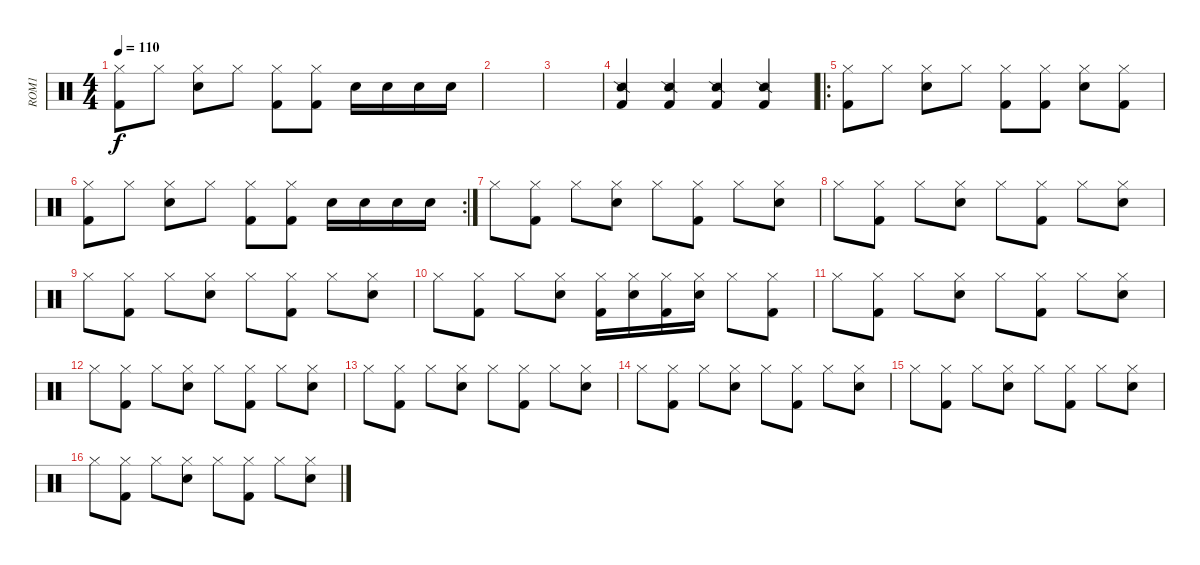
\track ("ROM1" "ROM1") {instrument percussion}
\staff {score}
\articulation defaults
\ts (4 4)
\tempo 110
\clef neutral
\ks c
("Kick (hit) 2" "Hi-Hat (closed)").8{dy f} "Hi-Hat (closed)".8 ("Electric Snare (hit)" "Hi-Hat (closed)").8 "Hi-Hat (closed)".8 ("Kick (hit) 2" "Hi-Hat (closed)").8 ("Kick (hit) 2" "Hi-Hat (closed)").8 "Electric Snare (hit)".16 "Electric Snare (hit)".16 "Electric Snare (hit)".16 "Electric Snare (hit)".16 |
|
|
("Snare (side stick) 2" "Kick (hit) 2").4 ("Snare (side stick) 2" "Kick (hit) 2").4 ("Snare (side stick) 2" "Kick (hit) 2").4 ("Snare (side stick) 2" "Kick (hit) 2").4 |
\ro
("Kick (hit) 2" "Hi-Hat (closed)").8 "Hi-Hat (closed)".8 ("Electric Snare (hit)" "Hi-Hat (closed)").8 "Hi-Hat (closed)".8 ("Kick (hit) 2" "Hi-Hat (closed)").8 ("Kick (hit) 2" "Hi-Hat (closed)").8 ("Electric Snare (hit)" "Hi-Hat (closed)").8 ("Kick (hit) 2" "Hi-Hat (closed)").8 |
\rc 2
("Kick (hit) 2" "Hi-Hat (closed)").8 "Hi-Hat (closed)".8 ("Electric Snare (hit)" "Hi-Hat (closed)").8 "Hi-Hat (closed)".8 ("Kick (hit) 2" "Hi-Hat (closed)").8 ("Kick (hit) 2" "Hi-Hat (closed)").8 "Electric Snare (hit)".16 "Electric Snare (hit)".16 "Electric Snare (hit)".16 "Electric Snare (hit)".16 |
"Hi-Hat (closed)".8 ("Kick (hit) 2" "Hi-Hat (closed)").8 "Hi-Hat (closed)".8 ("Electric Snare (hit)" "Hi-Hat (closed)").8 "Hi-Hat (closed)".8 ("Kick (hit) 2" "Hi-Hat (closed)").8 "Hi-Hat (closed)".8 ("Electric Snare (hit)" "Hi-Hat (closed)").8 |
"Hi-Hat (closed)".8 ("Kick (hit) 2" "Hi-Hat (closed)").8 "Hi-Hat (closed)".8 ("Electric Snare (hit)" "Hi-Hat (closed)").8 "Hi-Hat (closed)".8 ("Kick (hit) 2" "Hi-Hat (closed)").8 "Hi-Hat (closed)".8 ("Electric Snare (hit)" "Hi-Hat (closed)").8 |
"Hi-Hat (closed)".8 ("Kick (hit) 2" "Hi-Hat (closed)").8 "Hi-Hat (closed)".8 ("Electric Snare (hit)" "Hi-Hat (closed)").8 "Hi-Hat (closed)".8 ("Kick (hit) 2" "Hi-Hat (closed)").8 "Hi-Hat (closed)".8 ("Electric Snare (hit)" "Hi-Hat (closed)").8 |
"Hi-Hat (closed)".8 ("Kick (hit) 2" "Hi-Hat (closed)").8 "Hi-Hat (closed)".8 ("Electric Snare (hit)" "Hi-Hat (closed)").8 ("Kick (hit) 2" "Hi-Hat (closed)").16 ("Electric Snare (hit)" "Hi-Hat (closed)").16 ("Kick (hit) 2" "Hi-Hat (closed)").16 ("Electric Snare (hit)" "Hi-Hat (closed)").16 "Hi-Hat (closed)".8 ("Kick (hit) 2" "Hi-Hat (closed)").8 |
"Hi-Hat (closed)".8 ("Kick (hit) 2" "Hi-Hat (closed)").8 "Hi-Hat (closed)".8 ("Electric Snare (hit)" "Hi-Hat (closed)").8 "Hi-Hat (closed)".8 ("Kick (hit) 2" "Hi-Hat (closed)").8 "Hi-Hat (closed)".8 ("Electric Snare (hit)" "Hi-Hat (closed)").8 |
"Hi-Hat (closed)".8 ("Kick (hit) 2" "Hi-Hat (closed)").8 "Hi-Hat (closed)".8 ("Electric Snare (hit)" "Hi-Hat (closed)").8 "Hi-Hat (closed)".8 ("Kick (hit) 2" "Hi-Hat (closed)").8 "Hi-Hat (closed)".8 ("Electric Snare (hit)" "Hi-Hat (closed)").8 |
"Hi-Hat (closed)".8 ("Kick (hit) 2" "Hi-Hat (closed)").8 "Hi-Hat (closed)".8 ("Electric Snare (hit)" "Hi-Hat (closed)").8 "Hi-Hat (closed)".8 ("Kick (hit) 2" "Hi-Hat (closed)").8 "Hi-Hat (closed)".8 ("Electric Snare (hit)" "Hi-Hat (closed)").8 |
"Hi-Hat (closed)".8 ("Kick (hit) 2" "Hi-Hat (closed)").8 "Hi-Hat (closed)".8 ("Electric Snare (hit)" "Hi-Hat (closed)").8 "Hi-Hat (closed)".8 ("Kick (hit) 2" "Hi-Hat (closed)").8 "Hi-Hat (closed)".8 ("Electric Snare (hit)" "Hi-Hat (closed)").8 |
"Hi-Hat (closed)".8 ("Kick (hit) 2" "Hi-Hat (closed)").8 "Hi-Hat (closed)".8 ("Electric Snare (hit)" "Hi-Hat (closed)").8 "Hi-Hat (closed)".8 ("Kick (hit) 2" "Hi-Hat (closed)").8 "Hi-Hat (closed)".8 ("Electric Snare (hit)" "Hi-Hat (closed)").8 |
"Hi-Hat (closed)".8 ("Kick (hit) 2" "Hi-Hat (closed)").8 "Hi-Hat (closed)".8 ("Electric Snare (hit)" "Hi-Hat (closed)").8 "Hi-Hat (closed)".8 ("Kick (hit) 2" "Hi-Hat (closed)").8 "Hi-Hat (closed)".8 ("Electric Snare (hit)" "Hi-Hat (closed)").8
